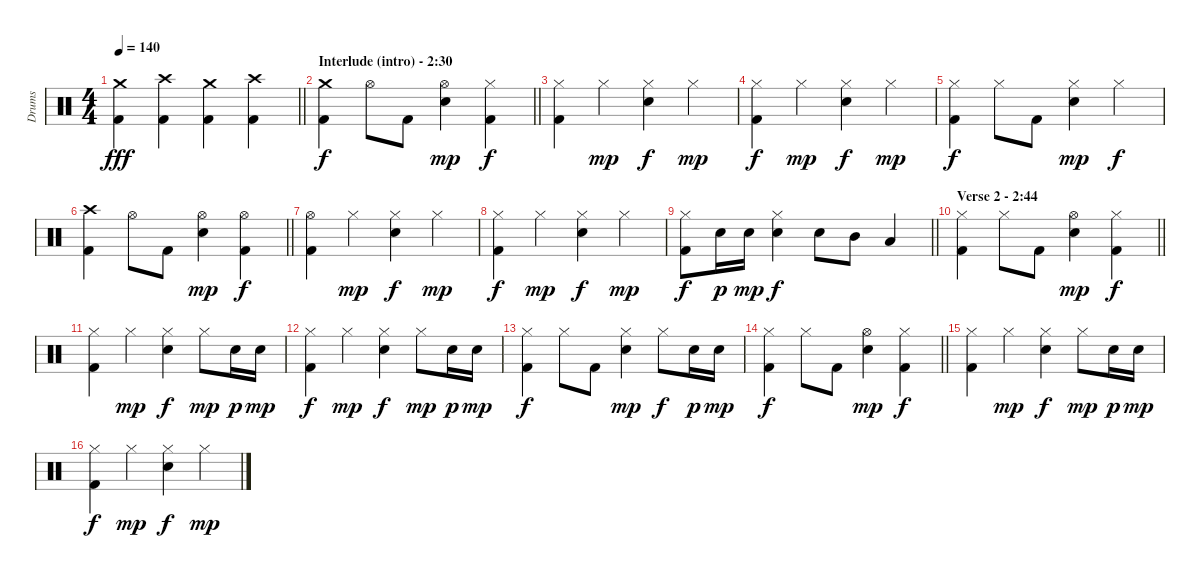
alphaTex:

\track ("Drums" "Drums") {instrument percussion}
\staff {score}
\articulation defaults
\ts (4 4)
\tempo 140
\clef neutral
\barLineRight lightlight
\ks c
("Crash medium (hit)" "Kick (hit) 2").4{dy fff} ("Crash high (hit)" "Kick (hit) 2").4 ("Crash medium (hit)" "Kick (hit) 2").4 ("Crash high (hit)" "Kick (hit) 2").4 |
\section ("" "Interlude (intro) - 2:30")
\barLineRight lightlight
("Crash medium (hit)" "Kick (hit) 2").4{dy f} "Hi-Hat (open)".8 "Kick (hit) 2".8 ("Hi-Hat (open)" "Electric Snare (hit)").4{dy mp} ("Hi-Hat (closed)" "Kick (hit) 2").4{dy f} |
("Hi-Hat (closed)" "Kick (hit) 2").4 "Hi-Hat (closed)".4{dy mp} ("Hi-Hat (closed)" "Electric Snare (hit)").4{dy f} "Hi-Hat (closed)".4{dy mp} |
("Hi-Hat (closed)" "Kick (hit) 2").4{dy f} "Hi-Hat (closed)".4{dy mp} ("Hi-Hat (closed)" "Electric Snare (hit)").4{dy f} "Hi-Hat (closed)".4{dy mp} |
("Hi-Hat (closed)" "Kick (hit) 2").4{dy f} "Hi-Hat (closed)".8 "Kick (hit) 2".8 ("Hi-Hat (closed)" "Electric Snare (hit)").4{dy mp} "Hi-Hat (closed)".4{dy f} |
\barLineRight lightlight
("Crash high (hit)" "Kick (hit) 2").4 "Hi-Hat (open)".8 "Kick (hit) 2".8 ("Hi-Hat (open)" "Electric Snare (hit)").4{dy mp} ("Hi-Hat (open)" "Kick (hit) 2").4{dy f} |
("Hi-Hat (open)" "Kick (hit) 2").4 "Hi-Hat (closed)".4{dy mp} ("Hi-Hat (closed)" "Electric Snare (hit)").4{dy f} "Hi-Hat (closed)".4{dy mp} |
("Hi-Hat (closed)" "Kick (hit) 2").4{dy f} "Hi-Hat (closed)".4{dy mp} ("Hi-Hat (closed)" "Electric Snare (hit)").4{dy f} "Hi-Hat (closed)".4{dy mp} |
\barLineRight lightlight
("Hi-Hat (closed)" "Kick (hit) 2").8{dy f} "Electric Snare (hit)".16{dy p} "Electric Snare (hit)".16{dy mp} ("Hi-Hat (closed)" "Electric Snare (hit)").4{dy f} "Electric Snare (hit)".8 "Mid Tom (hit)".8 "Low Tom (hit)".4 |
\section ("" "Verse 2 - 2:44")
\barLineRight lightlight
("Hi-Hat (closed)" "Kick (hit) 2").4 "Hi-Hat (closed)".8 "Kick (hit) 2".8 ("Hi-Hat (open)" "Electric Snare (hit)").4{dy mp} ("Hi-Hat (closed)" "Kick (hit) 2").4{dy f} |
("Hi-Hat (closed)" "Kick (hit) 2").4 "Hi-Hat (closed)".4{dy mp} ("Hi-Hat (closed)" "Electric Snare (hit)").4{dy f} "Hi-Hat (closed)".8{dy mp} "Electric Snare (hit)".16{dy p} "Electric Snare (hit)".16{dy mp} |
("Hi-Hat (closed)" "Kick (hit) 2").4{dy f} "Hi-Hat (closed)".4{dy mp} ("Hi-Hat (closed)" "Electric Snare (hit)").4{dy f} "Hi-Hat (closed)".8{dy mp} "Electric Snare (hit)".16{dy p} "Electric Snare (hit)".16{dy mp} |
("Hi-Hat (closed)" "Kick (hit) 2").4{dy f} "Hi-Hat (closed)".8 "Kick (hit) 2".8 ("Hi-Hat (closed)" "Electric Snare (hit)").4{dy mp} "Hi-Hat (closed)".8{dy f} "Electric Snare (hit)".16{dy p} "Electric Snare (hit)".16{dy mp} |
\barLineRight lightlight
("Hi-Hat (closed)" "Kick (hit) 2").4{dy f} "Hi-Hat (closed)".8 "Kick (hit) 2".8 ("Hi-Hat (open)" "Electric Snare (hit)").4{dy mp} ("Hi-Hat (closed)" "Kick (hit) 2").4{dy f} |
("Hi-Hat (closed)" "Kick (hit) 2").4 "Hi-Hat (closed)".4{dy mp} ("Hi-Hat (closed)" "Electric Snare (hit)").4{dy f} "Hi-Hat (closed)".8{dy mp} "Electric Snare (hit)".16{dy p} "Electric Snare (hit)".16{dy mp} |
("Hi-Hat (closed)" "Kick (hit) 2").4{dy f} "Hi-Hat (closed)".4{dy mp} ("Hi-Hat (closed)" "Electric Snare (hit)").4{dy f} "Hi-Hat (closed)".4{dy mp}
